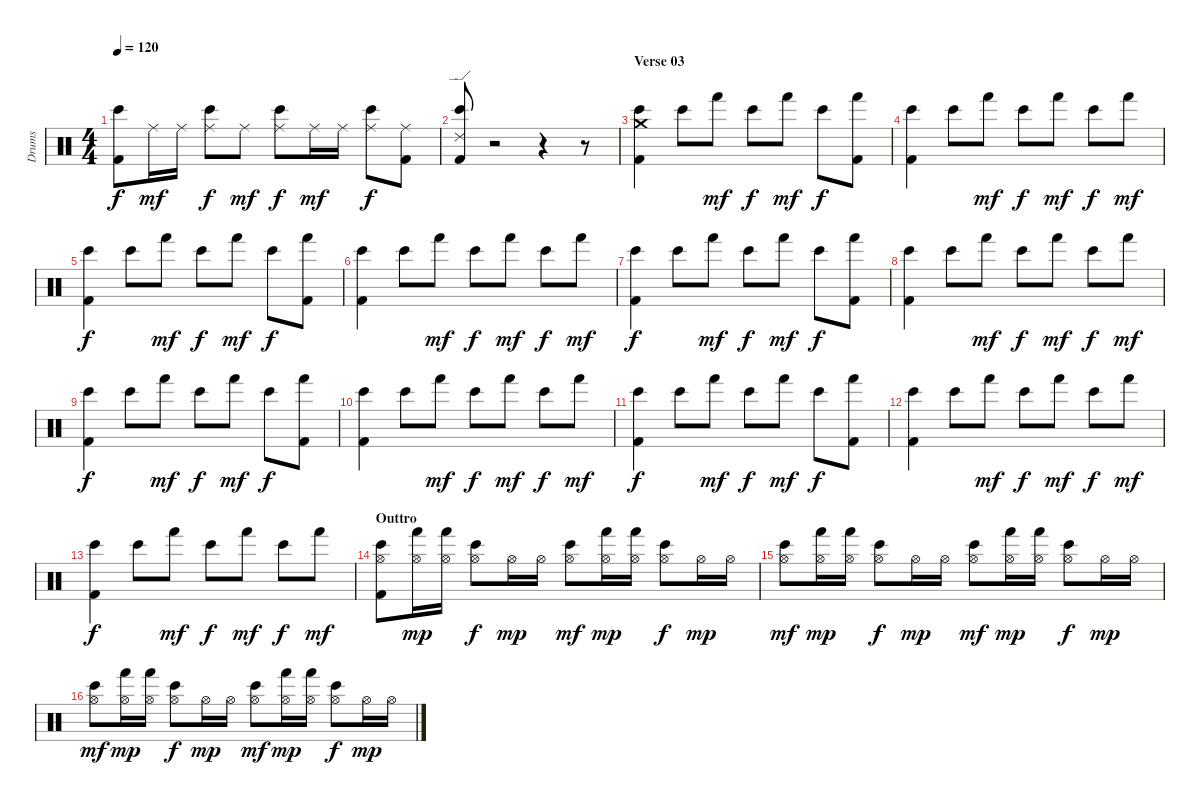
\track ("Drums" "Drums") {instrument percussion}
\staff {score}
\articulation defaults
\ts (4 4)
\tempo 120
\clef neutral
\ks c
("Kick (hit) 2" "Bongo High (hit)").8{dy f} "Ride (middle)".16{dy mf} "Ride (middle)".16 ("Bongo High (hit)" "Ride (middle)").8{dy f} "Ride (middle)".8{dy mf} ("Bongo High (hit)" "Ride (middle)").8{dy f} "Ride (middle)".16{dy mf} "Ride (middle)".16 ("Bongo High (hit)" "Ride (middle)").8{dy f} ("Kick (hit) 2" "Ride (middle)").8 |
("Kick (hit) 2" "Bongo High (hit)" "Ride (edge) 2").8 r.2 r.4 r.8 |
\section ("" "Verse 03")
("Kick (hit) 2" "Bongo High (hit)" "Crash medium (hit)").4 "Bongo High (hit)".8 "Hand (hit)".8{dy mf} "Bongo High (hit)".8{dy f} "Hand (hit)".8{dy mf} "Bongo High (hit)".8{dy f} ("Kick (hit) 2" "Hand (hit)").8 |
("Kick (hit) 2" "Bongo High (hit)").4 "Bongo High (hit)".8 "Hand (hit)".8{dy mf} "Bongo High (hit)".8{dy f} "Hand (hit)".8{dy mf} "Bongo High (hit)".8{dy f} "Hand (hit)".8{dy mf} |
("Kick (hit) 2" "Bongo High (hit)").4{dy f} "Bongo High (hit)".8 "Hand (hit)".8{dy mf} "Bongo High (hit)".8{dy f} "Hand (hit)".8{dy mf} "Bongo High (hit)".8{dy f} ("Kick (hit) 2" "Hand (hit)").8 |
("Kick (hit) 2" "Bongo High (hit)").4 "Bongo High (hit)".8 "Hand (hit)".8{dy mf} "Bongo High (hit)".8{dy f} "Hand (hit)".8{dy mf} "Bongo High (hit)".8{dy f} "Hand (hit)".8{dy mf} |
("Kick (hit) 2" "Bongo High (hit)").4{dy f} "Bongo High (hit)".8 "Hand (hit)".8{dy mf} "Bongo High (hit)".8{dy f} "Hand (hit)".8{dy mf} "Bongo High (hit)".8{dy f} ("Kick (hit) 2" "Hand (hit)").8 |
("Kick (hit) 2" "Bongo High (hit)").4 "Bongo High (hit)".8 "Hand (hit)".8{dy mf} "Bongo High (hit)".8{dy f} "Hand (hit)".8{dy mf} "Bongo High (hit)".8{dy f} "Hand (hit)".8{dy mf} |
("Kick (hit) 2" "Bongo High (hit)").4{dy f} "Bongo High (hit)".8 "Hand (hit)".8{dy mf} "Bongo High (hit)".8{dy f} "Hand (hit)".8{dy mf} "Bongo High (hit)".8{dy f} ("Kick (hit) 2" "Hand (hit)").8 |
("Kick (hit) 2" "Bongo High (hit)").4 "Bongo High (hit)".8 "Hand (hit)".8{dy mf} "Bongo High (hit)".8{dy f} "Hand (hit)".8{dy mf} "Bongo High (hit)".8{dy f} "Hand (hit)".8{dy mf} |
("Kick (hit) 2" "Bongo High (hit)").4{dy f} "Bongo High (hit)".8 "Hand (hit)".8{dy mf} "Bongo High (hit)".8{dy f} "Hand (hit)".8{dy mf} "Bongo High (hit)".8{dy f} ("Kick (hit) 2" "Hand (hit)").8 |
("Kick (hit) 2" "Bongo High (hit)").4 "Bongo High (hit)".8 "Hand (hit)".8{dy mf} "Bongo High (hit)".8{dy f} "Hand (hit)".8{dy mf} "Bongo High (hit)".8{dy f} "Hand (hit)".8{dy mf} |
("Kick (hit) 2" "Bongo High (hit)").4{dy f} "Bongo High (hit)".8 "Hand (hit)".8{dy mf} "Bongo High (hit)".8{dy f} "Hand (hit)".8{dy mf} "Bongo High (hit)".8{dy f} "Hand (hit)".8{dy mf} |
\section ("" "Outtro")
("Hi-Hat (open)" "Kick (hit) 2" "Bongo High (hit)").8 ("Hi-Hat (open)" "Hand (hit)").16{dy mp} ("Hi-Hat (open)" "Hand (hit)").16 ("Hi-Hat (open)" "Bongo High (hit)").8{dy f} "Hi-Hat (open)".16{dy mp} "Hi-Hat (open)".16 ("Hi-Hat (open)" "Bongo High (hit)").8{dy mf} ("Hi-Hat (open)" "Hand (hit)").16{dy mp} ("Hi-Hat (open)" "Hand (hit)").16 ("Hi-Hat (open)" "Bongo High (hit)").8{dy f} "Hi-Hat (open)".16{dy mp} "Hi-Hat (open)".16 |
("Hi-Hat (open)" "Bongo High (hit)").8{dy mf} ("Hi-Hat (open)" "Hand (hit)").16{dy mp} ("Hi-Hat (open)" "Hand (hit)").16 ("Hi-Hat (open)" "Bongo High (hit)").8{dy f} "Hi-Hat (open)".16{dy mp} "Hi-Hat (open)".16 ("Hi-Hat (open)" "Bongo High (hit)").8{dy mf} ("Hi-Hat (open)" "Hand (hit)").16{dy mp} ("Hi-Hat (open)" "Hand (hit)").16 ("Hi-Hat (open)" "Bongo High (hit)").8{dy f} "Hi-Hat (open)".16{dy mp} "Hi-Hat (open)".16 |
("Hi-Hat (open)" "Bongo High (hit)").8{dy mf} ("Hi-Hat (open)" "Hand (hit)").16{dy mp} ("Hi-Hat (open)" "Hand (hit)").16 ("Hi-Hat (open)" "Bongo High (hit)").8{dy f} "Hi-Hat (open)".16{dy mp} "Hi-Hat (open)".16 ("Hi-Hat (open)" "Bongo High (hit)").8{dy mf} ("Hi-Hat (open)" "Hand (hit)").16{dy mp} ("Hi-Hat (open)" "Hand (hit)").16 ("Hi-Hat (open)" "Bongo High (hit)").8{dy f} "Hi-Hat (open)".16{dy mp} "Hi-Hat (open)".16
